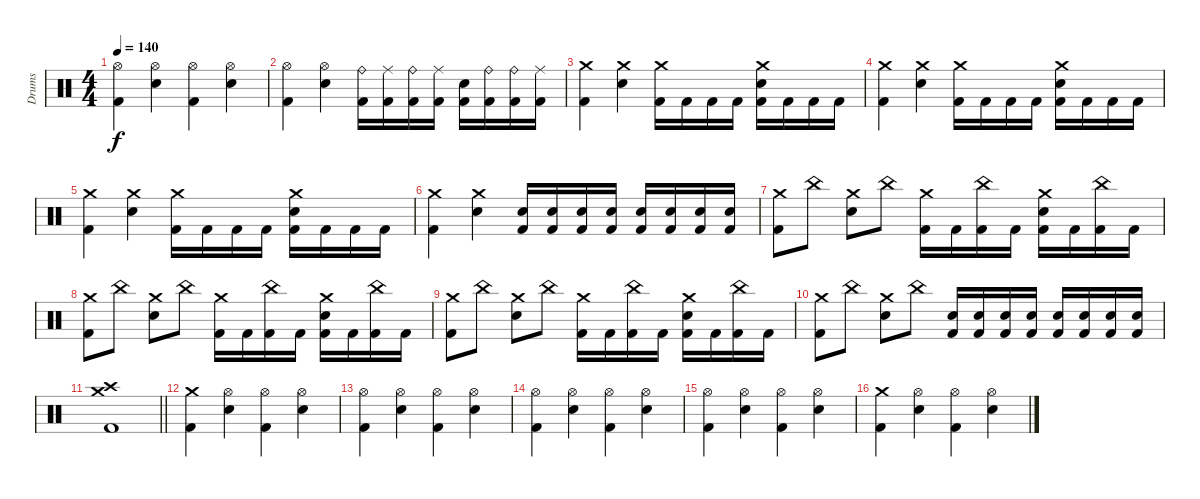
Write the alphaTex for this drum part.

\track ("Drums" "Drums") {instrument percussion}
\staff {score}
\articulation defaults
\ts (4 4)
\tempo 140
\clef neutral
\ks c
("Hi-Hat (open)" "Kick (hit) 2").4{dy f} ("Hi-Hat (open)" "Electric Snare (hit)").4 ("Hi-Hat (open)" "Kick (hit) 2").4 ("Hi-Hat (open)" "Electric Snare (hit)").4 |
("Hi-Hat (open)" "Kick (hit) 2").4 ("Hi-Hat (open)" "Electric Snare (hit)").4 ("Ride (bell)" "Kick (hit) 2").16 ("Ride (middle)" "Kick (hit) 2").16 ("Ride (bell)" "Kick (hit) 2").16 ("Ride (middle)" "Kick (hit) 2").16 ("Electric Snare (hit)" "Kick (hit) 2").16 ("Ride (bell)" "Kick (hit) 2").16 ("Ride (bell)" "Kick (hit) 2").16 ("Ride (middle)" "Kick (hit) 2").16 |
("Crash medium (hit)" "Kick (hit) 2").4 ("Crash medium (hit)" "Electric Snare (hit)").4 ("Crash medium (hit)" "Kick (hit) 2").16 "Kick (hit) 2".16 "Kick (hit) 2".16 "Kick (hit) 2".16 ("Crash medium (hit)" "Electric Snare (hit)" "Kick (hit) 2").16 "Kick (hit) 2".16 "Kick (hit) 2".16 "Kick (hit) 2".16 |
("Crash medium (hit)" "Kick (hit) 2").4 ("Crash medium (hit)" "Electric Snare (hit)").4 ("Crash medium (hit)" "Kick (hit) 2").16 "Kick (hit) 2".16 "Kick (hit) 2".16 "Kick (hit) 2".16 ("Crash medium (hit)" "Electric Snare (hit)" "Kick (hit) 2").16 "Kick (hit) 2".16 "Kick (hit) 2".16 "Kick (hit) 2".16 |
("Crash medium (hit)" "Kick (hit) 2").4 ("Crash medium (hit)" "Electric Snare (hit)").4 ("Crash medium (hit)" "Kick (hit) 2").16 "Kick (hit) 2".16 "Kick (hit) 2".16 "Kick (hit) 2".16 ("Crash medium (hit)" "Electric Snare (hit)" "Kick (hit) 2").16 "Kick (hit) 2".16 "Kick (hit) 2".16 "Kick (hit) 2".16 |
("Crash medium (hit)" "Kick (hit) 2").4 ("Crash medium (hit)" "Electric Snare (hit)").4 ("Electric Snare (hit)" "Kick (hit) 2").16 ("Electric Snare (hit)" "Kick (hit) 2").16 ("Electric Snare (hit)" "Kick (hit) 2").16 ("Electric Snare (hit)" "Kick (hit) 2").16 ("Electric Snare (hit)" "Kick (hit) 2").16 ("Electric Snare (hit)" "Kick (hit) 2").16 ("Electric Snare (hit)" "Kick (hit) 2").16 ("Electric Snare (hit)" "Kick (hit) 2").16 |
("Crash medium (hit)" "Kick (hit) 2").8 "China (hit)".8 ("Crash medium (hit)" "Electric Snare (hit)").8 "China (hit)".8 ("Crash medium (hit)" "Kick (hit) 2").16 "Kick (hit) 2".16 ("China (hit)" "Kick (hit) 2").16 "Kick (hit) 2".16 ("Crash medium (hit)" "Electric Snare (hit)" "Kick (hit) 2").16 "Kick (hit) 2".16 ("China (hit)" "Kick (hit) 2").16 "Kick (hit) 2".16 |
("Crash medium (hit)" "Kick (hit) 2").8 "China (hit)".8 ("Crash medium (hit)" "Electric Snare (hit)").8 "China (hit)".8 ("Crash medium (hit)" "Kick (hit) 2").16 "Kick (hit) 2".16 ("China (hit)" "Kick (hit) 2").16 "Kick (hit) 2".16 ("Crash medium (hit)" "Electric Snare (hit)" "Kick (hit) 2").16 "Kick (hit) 2".16 ("China (hit)" "Kick (hit) 2").16 "Kick (hit) 2".16 |
("Crash medium (hit)" "Kick (hit) 2").8 "China (hit)".8 ("Crash medium (hit)" "Electric Snare (hit)").8 "China (hit)".8 ("Crash medium (hit)" "Kick (hit) 2").16 "Kick (hit) 2".16 ("China (hit)" "Kick (hit) 2").16 "Kick (hit) 2".16 ("Crash medium (hit)" "Electric Snare (hit)" "Kick (hit) 2").16 "Kick (hit) 2".16 ("China (hit)" "Kick (hit) 2").16 "Kick (hit) 2".16 |
("Crash medium (hit)" "Kick (hit) 2").8 "China (hit)".8 ("Crash medium (hit)" "Electric Snare (hit)").8 "China (hit)".8 ("Electric Snare (hit)" "Kick (hit) 2").16 ("Electric Snare (hit)" "Kick (hit) 2").16 ("Electric Snare (hit)" "Kick (hit) 2").16 ("Electric Snare (hit)" "Kick (hit) 2").16 ("Electric Snare (hit)" "Kick (hit) 2").16 ("Electric Snare (hit)" "Kick (hit) 2").16 ("Electric Snare (hit)" "Kick (hit) 2").16 ("Electric Snare (hit)" "Kick (hit) 2").16 |
\barLineRight lightlight
("Crash medium (hit)" "Crash high (hit)" "Kick (hit) 2").1 |
("Crash medium (hit)" "Kick (hit) 2").4 ("Hi-Hat (open)" "Electric Snare (hit)").4 ("Hi-Hat (open)" "Kick (hit) 2").4 ("Hi-Hat (open)" "Electric Snare (hit)").4 |
("Hi-Hat (open)" "Kick (hit) 2").4 ("Hi-Hat (open)" "Electric Snare (hit)").4 ("Hi-Hat (open)" "Kick (hit) 2").4 ("Hi-Hat (open)" "Electric Snare (hit)").4 |
("Hi-Hat (open)" "Kick (hit) 2").4 ("Hi-Hat (open)" "Electric Snare (hit)").4 ("Hi-Hat (open)" "Kick (hit) 2").4 ("Hi-Hat (open)" "Electric Snare (hit)").4 |
("Hi-Hat (open)" "Kick (hit) 2").4 ("Hi-Hat (open)" "Electric Snare (hit)").4 ("Hi-Hat (open)" "Kick (hit) 2").4 ("Hi-Hat (open)" "Electric Snare (hit)").4 |
("Crash medium (hit)" "Kick (hit) 2").4 ("Hi-Hat (open)" "Electric Snare (hit)").4 ("Hi-Hat (open)" "Kick (hit) 2").4 ("Hi-Hat (open)" "Electric Snare (hit)").4
